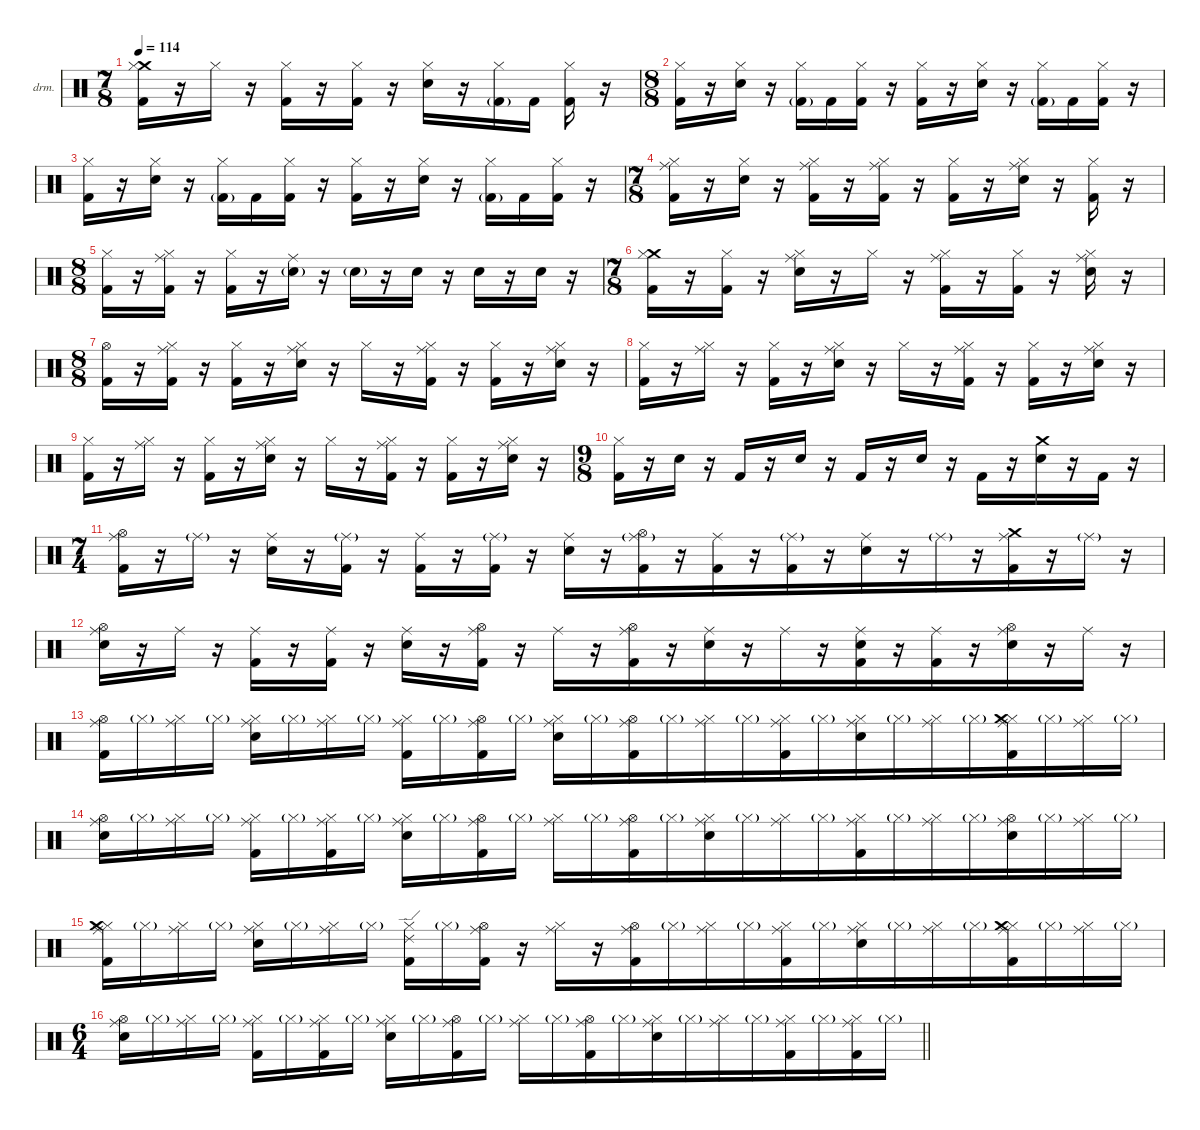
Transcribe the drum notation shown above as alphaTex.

\defaultSystemsLayout 4
\hideDynamics
\bracketExtendMode nobrackets
\firstSystemTrackNameOrientation horizontal
\otherSystemsTrackNameOrientation horizontal
\track ("Drums" "drm.") {instrument percussion}
\staff {score}
\articulation defaults
\ts (7 8)
\beaming (8 2 2 2 2)
\tempo 114
\clef neutral
\ks c
("Crash medium (hit)" "Hi-Hat (closed)" "Kick (hit) 2").16{dy f beam Down} r.16{beam Down} "Hi-Hat (closed)".16{beam Down} r.16{beam Down} ("Hi-Hat (closed)" "Kick (hit) 2").16{beam Down} r.16{beam Down} ("Hi-Hat (closed)" "Kick (hit) 2").16{beam Down} r.16{beam Down} ("Hi-Hat (closed)" "Snare (hit) 2").16{beam Down} r.16{beam Down} ("Hi-Hat (closed)" "Kick (hit) 2"{g}).16{beam Down} "Kick (hit) 2".16{beam Down} ("Hi-Hat (closed)" "Kick (hit) 2").16{beam Down} r.16{beam Down} |
\ts (8 8)
\beaming (8 2 2 2 2)
("Hi-Hat (closed)" "Kick (hit) 2").16{beam Down} r.16{beam Down} ("Hi-Hat (closed)" "Snare (hit) 2").16{beam Down} r.16{beam Down} ("Hi-Hat (closed)" "Kick (hit) 2"{g}).16{beam Down} "Kick (hit) 2".16{beam Down} ("Hi-Hat (closed)" "Kick (hit) 2").16{beam Down} r.16{beam Down} ("Hi-Hat (closed)" "Kick (hit) 2").16{beam Down} r.16{beam Down} ("Hi-Hat (closed)" "Snare (hit) 2").16{beam Down} r.16{beam Down} ("Hi-Hat (closed)" "Kick (hit) 2"{g}).16{beam Down} "Kick (hit) 2".16{beam Down} ("Hi-Hat (closed)" "Kick (hit) 2").16{beam Down} r.16{beam Down} |
("Hi-Hat (closed)" "Kick (hit) 2").16{beam Down} r.16{beam Down} ("Hi-Hat (closed)" "Snare (hit) 2").16{beam Down} r.16{beam Down} ("Hi-Hat (closed)" "Kick (hit) 2"{g}).16{beam Down} "Kick (hit) 2".16{beam Down} ("Hi-Hat (closed)" "Kick (hit) 2").16{beam Down} r.16{beam Down} ("Hi-Hat (closed)" "Kick (hit) 2").16{beam Down} r.16{beam Down} ("Hi-Hat (closed)" "Snare (hit) 2").16{beam Down} r.16{beam Down} ("Hi-Hat (closed)" "Kick (hit) 2"{g}).16{beam Down} "Kick (hit) 2".16{beam Down} ("Hi-Hat (closed)" "Kick (hit) 2").16{beam Down} r.16{beam Down} |
\ts (7 8)
\beaming (8 2 2 2 2)
("Ride (middle)" "Hi-Hat (closed)" "Kick (hit) 2").16{beam Down} r.16{beam Down} ("Hi-Hat (closed)" "Snare (hit) 2").16{beam Down} r.16{beam Down} ("Ride (middle)" "Hi-Hat (closed)" "Kick (hit) 2").16{beam Down} r.16{beam Down} ("Ride (middle)" "Hi-Hat (closed)" "Kick (hit) 2").16{beam Down} r.16{beam Down} ("Hi-Hat (closed)" "Kick (hit) 2").16{beam Down} r.16{beam Down} ("Ride (middle)" "Hi-Hat (closed)" "Snare (hit) 2").16{beam Down} r.16{beam Down} ("Hi-Hat (closed)" "Kick (hit) 2").16{beam Down} r.16{beam Down} |
\ts (8 8)
\beaming (8 2 2 2 2)
("Hi-Hat (closed)" "Kick (hit) 2").16{beam Down} r.16{beam Down} ("Ride (middle)" "Hi-Hat (closed)" "Kick (hit) 2").16{beam Down} r.16{beam Down} ("Hi-Hat (closed)" "Kick (hit) 2").16{beam Down} r.16{beam Down} ("Ride (middle)" "Snare (hit) 2"{g}).16{beam Down} r.16{beam Down} "Snare (hit) 2"{g}.16{dy mf beam Down} r.16{beam Down} "Snare (hit) 2".16{dy f beam Down} r.16{beam Down} "Snare (hit) 2".16{beam Down} r.16{beam Down} "Snare (hit) 2".16{beam Down} r.16{beam Down} |
\ts (7 8)
\beaming (8 2 2 2 2)
("Crash medium (hit)" "Hi-Hat (closed)" "Kick (hit) 2").16{beam Down} r.16{beam Down} ("Hi-Hat (closed)" "Kick (hit) 2").16{beam Down} r.16{beam Down} ("Ride (middle)" "Hi-Hat (closed)" "Snare (hit) 2").16{beam Down} r.16{beam Down} "Hi-Hat (closed)".16{beam Down} r.16{beam Down} ("Ride (middle)" "Hi-Hat (closed)" "Kick (hit) 2").16{beam Down} r.16{beam Down} ("Hi-Hat (closed)" "Kick (hit) 2").16{beam Down} r.16{beam Down} ("Ride (middle)" "Hi-Hat (closed)" "Snare (hit) 2").16{beam Down} r.16{beam Down} |
\ts (8 8)
\beaming (8 2 2 2 2)
("Hi-Hat (open)" "Kick (hit) 2").16{beam Down} r.16{beam Down} ("Ride (middle)" "Hi-Hat (closed)" "Kick (hit) 2").16{beam Down} r.16{beam Down} ("Hi-Hat (closed)" "Kick (hit) 2").16{beam Down} r.16{beam Down} ("Ride (middle)" "Hi-Hat (closed)" "Snare (hit) 2").16{beam Down} r.16{beam Down} "Hi-Hat (closed)".16{beam Down} r.16{beam Down} ("Ride (middle)" "Hi-Hat (closed)" "Kick (hit) 2").16{beam Down} r.16{beam Down} ("Hi-Hat (closed)" "Kick (hit) 2").16{beam Down} r.16{beam Down} ("Ride (middle)" "Hi-Hat (closed)" "Snare (hit) 2").16{beam Down} r.16{beam Down} |
("Hi-Hat (closed)" "Kick (hit) 2").16{beam Down} r.16{beam Down} ("Ride (middle)" "Hi-Hat (closed)").16{beam Down} r.16{beam Down} ("Hi-Hat (closed)" "Kick (hit) 2").16{beam Down} r.16{beam Down} ("Ride (middle)" "Hi-Hat (closed)" "Snare (hit) 2").16{beam Down} r.16{beam Down} "Hi-Hat (closed)".16{beam Down} r.16{beam Down} ("Ride (middle)" "Hi-Hat (closed)" "Kick (hit) 2").16{beam Down} r.16{beam Down} ("Hi-Hat (closed)" "Kick (hit) 2").16{beam Down} r.16{beam Down} ("Ride (middle)" "Hi-Hat (closed)" "Snare (hit) 2").16{beam Down} r.16{beam Down} |
("Hi-Hat (closed)" "Kick (hit) 2").16{beam Down} r.16{beam Down} ("Ride (middle)" "Hi-Hat (closed)").16{beam Down} r.16{beam Down} ("Hi-Hat (closed)" "Kick (hit) 2").16{beam Down} r.16{beam Down} ("Ride (middle)" "Hi-Hat (closed)" "Snare (hit) 2").16{beam Down} r.16{beam Down} "Hi-Hat (closed)".16{beam Down} r.16{beam Down} ("Ride (middle)" "Hi-Hat (closed)" "Kick (hit) 2").16{beam Down} r.16{beam Down} ("Hi-Hat (closed)" "Kick (hit) 2").16{beam Down} r.16{beam Down} ("Ride (middle)" "Hi-Hat (closed)" "Snare (hit) 2").16{beam Down} r.16{beam Down} |
\ts (9 8)
\beaming (8 2 2 2 3)
("Hi-Hat (closed)" "Kick (hit) 2").16{beam Down} r.16{beam Down} "Snare (hit) 2".16{beam Down} r.16{beam Down} "Kick (hit) 2".16{beam Up} r.16{beam Up} "Snare (hit) 2".16{beam Up} r.16{beam Up} "Kick (hit) 2".16{beam Up} r.16{beam Up} "Snare (hit) 2".16{beam Up} r.16{beam Up} "Kick (hit) 2".16{beam Down} r.16{beam Down} ("Crash medium (hit)" "Snare (hit) 2").16{beam Down} r.16{beam Down} "Kick (hit) 2".16{beam Down} r.16{beam Down} |
\ts (7 4)
\beaming (8 2 2 2 8)
("Ride (middle)" "Hi-Hat (open)" "Kick (hit) 2").16{beam Down} r.16{beam Down} "Ride (middle)"{g}.16{dy mf beam Down} r.16{beam Down} ("Ride (middle)" "Snare (hit) 2").16{dy f beam Down} r.16{beam Down} ("Ride (middle)"{g} "Kick (hit) 2").16{beam Down} r.16{beam Down} ("Ride (middle)" "Kick (hit) 2").16{beam Down} r.16{beam Down} ("Ride (middle)"{g} "Kick (hit) 2").16{beam Down} r.16{beam Down} ("Ride (middle)" "Snare (hit) 2").16{beam Down} r.16{beam Down} ("Ride (middle)"{g} "Hi-Hat (open)" "Kick (hit) 2").16{beam Down} r.16{beam Down} ("Ride (middle)" "Kick (hit) 2").16{beam Down} r.16{beam Down} ("Ride (middle)"{g} "Kick (hit) 2").16{beam Down} r.16{beam Down} ("Ride (middle)" "Snare (hit) 2").16{beam Down} r.16{beam Down} "Ride (middle)"{g}.16{dy mf beam Down} r.16{beam Down} ("Ride (middle)" "Crash medium (hit)" "Kick (hit) 2").16{dy f beam Down} r.16{beam Down} "Ride (middle)"{g}.16{dy mf beam Down} r.16{beam Down} |
("Ride (middle)" "Hi-Hat (open)" "Snare (hit) 2").16{dy f beam Down} r.16{beam Down} "Ride (middle)".16{beam Down} r.16{beam Down} ("Ride (middle)" "Kick (hit) 2").16{beam Down} r.16{beam Down} ("Ride (middle)" "Kick (hit) 2").16{beam Down} r.16{beam Down} ("Ride (middle)" "Snare (hit) 2").16{beam Down} r.16{beam Down} ("Ride (middle)" "Hi-Hat (open)" "Kick (hit) 2").16{beam Down} r.16{beam Down} "Ride (middle)".16{beam Down} r.16{beam Down} ("Ride (middle)" "Hi-Hat (open)" "Kick (hit) 2").16{beam Down} r.16{beam Down} ("Ride (middle)" "Snare (hit) 2").16{beam Down} r.16{beam Down} "Ride (middle)".16{beam Down} r.16{beam Down} ("Ride (middle)" "Snare (hit) 2" "Kick (hit) 2").16{beam Down} r.16{beam Down} ("Ride (middle)" "Kick (hit) 2").16{beam Down} r.16{beam Down} ("Ride (middle)" "Hi-Hat (open)" "Snare (hit) 2").16{beam Down} r.16{beam Down} "Ride (middle)".16{beam Down} r.16{beam Down} |
("Ride (middle)" "Hi-Hat (open)" "Kick (hit) 2").16{beam Down} "Hi-Hat (closed)"{g}.16{dy mf beam Down} ("Ride (middle)" "Hi-Hat (closed)").16{dy f beam Down} "Hi-Hat (closed)"{g}.16{dy mf beam Down} ("Ride (middle)" "Hi-Hat (closed)" "Snare (hit) 2").16{dy f beam Down} "Hi-Hat (closed)"{g}.16{dy mf beam Down} ("Ride (middle)" "Hi-Hat (closed)").16{dy f beam Down} "Hi-Hat (closed)"{g}.16{dy mf beam Down} ("Ride (middle)" "Hi-Hat (closed)" "Kick (hit) 2").16{dy f beam Down} "Hi-Hat (closed)"{g}.16{dy mf beam Down} ("Ride (middle)" "Hi-Hat (open)" "Kick (hit) 2").16{dy f beam Down} "Hi-Hat (closed)"{g}.16{dy mf beam Down} ("Ride (middle)" "Hi-Hat (closed)" "Snare (hit) 2").16{dy f beam Down} "Hi-Hat (closed)"{g}.16{dy mf beam Down} ("Ride (middle)" "Hi-Hat (open)" "Kick (hit) 2").16{dy f beam Down} "Hi-Hat (closed)"{g}.16{dy mf beam Down} ("Ride (middle)" "Hi-Hat (closed)").16{dy f beam Down} "Hi-Hat (closed)"{g}.16{dy mf beam Down} ("Ride (middle)" "Hi-Hat (closed)" "Kick (hit) 2").16{dy f beam Down} "Hi-Hat (closed)"{g}.16{dy mf beam Down} ("Ride (middle)" "Hi-Hat (closed)" "Snare (hit) 2").16{dy f beam Down} "Hi-Hat (closed)"{g}.16{dy mf beam Down} ("Ride (middle)" "Hi-Hat (closed)").16{dy f beam Down} "Hi-Hat (closed)"{g}.16{dy mf beam Down} ("Ride (middle)" "Hi-Hat (closed)" "Crash medium (hit)" "Kick (hit) 2").16{dy f beam Down} "Hi-Hat (closed)"{g}.16{dy mf beam Down} ("Ride (middle)" "Hi-Hat (closed)").16{dy f beam Down} "Hi-Hat (closed)"{g}.16{dy mf beam Down} |
("Ride (middle)" "Hi-Hat (open)" "Snare (hit) 2").16{dy f beam Down} "Hi-Hat (closed)"{g}.16{dy mf beam Down} ("Ride (middle)" "Hi-Hat (closed)").16{dy f beam Down} "Hi-Hat (closed)"{g}.16{dy mf beam Down} ("Ride (middle)" "Hi-Hat (closed)" "Kick (hit) 2").16{dy f beam Down} "Hi-Hat (closed)"{g}.16{dy mf beam Down} ("Ride (middle)" "Hi-Hat (closed)" "Kick (hit) 2").16{dy f beam Down} "Hi-Hat (closed)"{g}.16{dy mf beam Down} ("Ride (middle)" "Hi-Hat (closed)" "Snare (hit) 2").16{dy f beam Down} "Hi-Hat (closed)"{g}.16{dy mf beam Down} ("Ride (middle)" "Hi-Hat (open)" "Kick (hit) 2").16{dy f beam Down} "Hi-Hat (closed)"{g}.16{dy mf beam Down} ("Ride (middle)" "Hi-Hat (closed)").16{dy f beam Down} "Hi-Hat (closed)"{g}.16{dy mf beam Down} ("Ride (middle)" "Hi-Hat (open)" "Kick (hit) 2").16{dy f beam Down} "Hi-Hat (closed)"{g}.16{dy mf beam Down} ("Ride (middle)" "Hi-Hat (closed)" "Snare (hit) 2").16{dy f beam Down} "Hi-Hat (closed)"{g}.16{dy mf beam Down} ("Ride (middle)" "Hi-Hat (closed)").16{dy f beam Down} "Hi-Hat (closed)"{g}.16{dy mf beam Down} ("Ride (middle)" "Hi-Hat (closed)" "Kick (hit) 2").16{dy f beam Down} "Hi-Hat (closed)"{g}.16{dy mf beam Down} ("Ride (middle)" "Hi-Hat (closed)").16{dy f beam Down} "Hi-Hat (closed)"{g}.16{dy mf beam Down} ("Ride (middle)" "Hi-Hat (open)" "Snare (hit) 2").16{dy f beam Down} "Hi-Hat (closed)"{g}.16{dy mf beam Down} ("Ride (middle)" "Hi-Hat (closed)").16{dy f beam Down} "Hi-Hat (closed)"{g}.16{dy mf beam Down} |
("Ride (middle)" "Hi-Hat (closed)" "Crash medium (hit)" "Kick (hit) 2").16{dy f beam Down} "Hi-Hat (closed)"{g}.16{dy mf beam Down} ("Ride (middle)" "Hi-Hat (closed)").16{dy f beam Down} "Hi-Hat (closed)"{g}.16{dy mf beam Down} ("Ride (middle)" "Hi-Hat (closed)" "Snare (hit) 2").16{dy f beam Down} "Hi-Hat (closed)"{g}.16{dy mf beam Down} ("Ride (middle)" "Hi-Hat (closed)").16{dy f beam Down} "Hi-Hat (closed)"{g}.16{dy mf beam Down} ("Ride (edge) 2" "Hi-Hat (closed)" "Kick (hit) 2").16{dy f beam Down} "Hi-Hat (closed)"{g}.16{dy mf beam Down} ("Ride (middle)" "Hi-Hat (open)" "Kick (hit) 2").16{dy f beam Down} r.16{beam Down} ("Ride (middle)" "Hi-Hat (closed)").16{beam Down} r.16{beam Down} ("Ride (middle)" "Hi-Hat (open)" "Kick (hit) 2").16{beam Down} "Hi-Hat (closed)"{g}.16{dy mf beam Down} ("Ride (middle)" "Hi-Hat (closed)").16{dy f beam Down} "Hi-Hat (closed)"{g}.16{dy mf beam Down} ("Ride (middle)" "Hi-Hat (closed)" "Kick (hit) 2").16{dy f beam Down} "Hi-Hat (closed)"{g}.16{dy mf beam Down} ("Ride (middle)" "Hi-Hat (closed)" "Snare (hit) 2").16{dy f beam Down} "Hi-Hat (closed)"{g}.16{dy mf beam Down} ("Ride (middle)" "Hi-Hat (closed)").16{dy f beam Down} "Hi-Hat (closed)"{g}.16{dy mf beam Down} ("Ride (middle)" "Hi-Hat (closed)" "Crash medium (hit)" "Kick (hit) 2").16{dy f beam Down} "Hi-Hat (closed)"{g}.16{dy mf beam Down} ("Ride (middle)" "Hi-Hat (closed)").16{dy f beam Down} "Hi-Hat (closed)"{g}.16{dy mf beam Down} |
\ts (6 4)
\beaming (8 2 2 2 6)
\barLineRight lightlight
("Ride (middle)" "Hi-Hat (open)" "Snare (hit) 2").16{dy f beam Down} "Hi-Hat (closed)"{g}.16{dy mf beam Down} ("Ride (middle)" "Hi-Hat (closed)").16{dy f beam Down} "Hi-Hat (closed)"{g}.16{dy mf beam Down} ("Ride (middle)" "Hi-Hat (closed)" "Kick (hit) 2").16{dy f beam Down} "Hi-Hat (closed)"{g}.16{dy mf beam Down} ("Ride (middle)" "Hi-Hat (closed)" "Kick (hit) 2").16{dy f beam Down} "Hi-Hat (closed)"{g}.16{dy mf beam Down} ("Ride (middle)" "Hi-Hat (closed)" "Snare (hit) 2").16{dy f beam Down} "Hi-Hat (closed)"{g}.16{dy mf beam Down} ("Ride (middle)" "Hi-Hat (open)" "Kick (hit) 2").16{dy f beam Down} "Hi-Hat (closed)"{g}.16{dy mf beam Down} ("Ride (middle)" "Hi-Hat (closed)").16{dy f beam Down} "Hi-Hat (closed)"{g}.16{dy mf beam Down} ("Ride (middle)" "Hi-Hat (open)" "Kick (hit) 2").16{dy f beam Down} "Hi-Hat (closed)"{g}.16{dy mf beam Down} ("Ride (middle)" "Hi-Hat (closed)" "Snare (hit) 2").16{dy f beam Down} "Hi-Hat (closed)"{g}.16{dy mf beam Down} ("Ride (middle)" "Hi-Hat (closed)").16{dy f beam Down} "Hi-Hat (closed)"{g}.16{dy mf beam Down} ("Ride (middle)" "Hi-Hat (closed)" "Kick (hit) 2").16{dy f beam Down} "Hi-Hat (closed)"{g}.16{dy mf beam Down} ("Ride (middle)" "Hi-Hat (closed)" "Kick (hit) 2").16{dy f beam Down} "Hi-Hat (closed)"{g}.16{dy mf beam Down}
